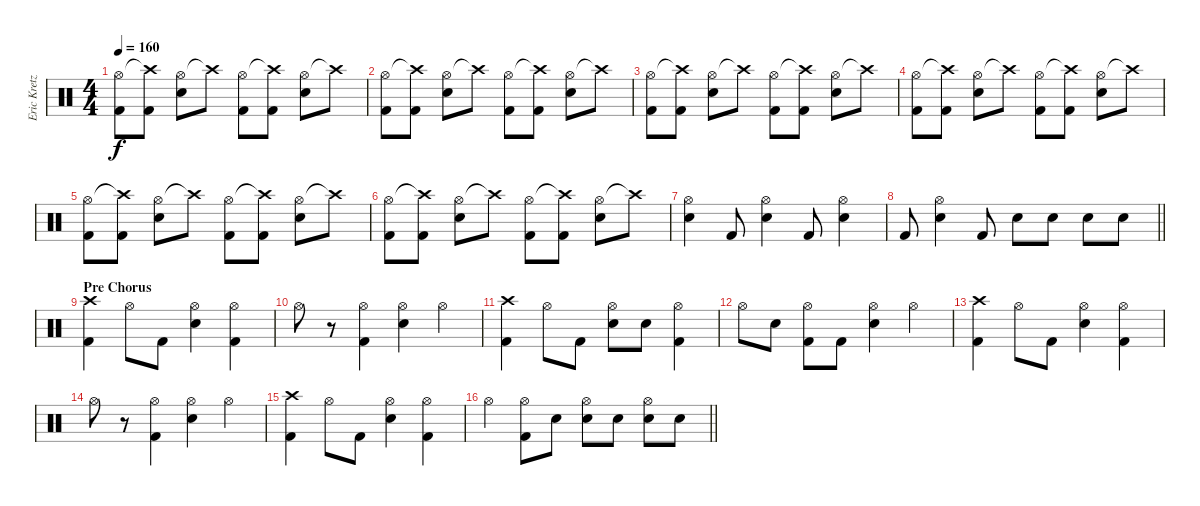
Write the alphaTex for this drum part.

\track ("Eric Kretz (Drums)" "Eric Kretz") {instrument percussion}
\staff {score}
\articulation defaults
\ts (4 4)
\tempo 160
\clef neutral
\ks c
("Hi-Hat (open)" "Kick (hit) 2").8{dy f} ("Crash high (hit)"{t} "Kick (hit) 2").8 ("Hi-Hat (open)" "Snare (hit) 2").8 "Crash high (hit)"{t}.8 ("Hi-Hat (open)" "Kick (hit) 2").8 ("Crash high (hit)"{t} "Kick (hit) 2").8 ("Hi-Hat (open)" "Snare (hit) 2").8 "Crash high (hit)"{t}.8 |
("Hi-Hat (open)" "Kick (hit) 2").8 ("Crash high (hit)"{t} "Kick (hit) 2").8 ("Hi-Hat (open)" "Snare (hit) 2").8 "Crash high (hit)"{t}.8 ("Hi-Hat (open)" "Kick (hit) 2").8 ("Crash high (hit)"{t} "Kick (hit) 2").8 ("Hi-Hat (open)" "Snare (hit) 2").8 "Crash high (hit)"{t}.8 |
("Hi-Hat (open)" "Kick (hit) 2").8 ("Crash high (hit)"{t} "Kick (hit) 2").8 ("Hi-Hat (open)" "Snare (hit) 2").8 "Crash high (hit)"{t}.8 ("Hi-Hat (open)" "Kick (hit) 2").8 ("Crash high (hit)"{t} "Kick (hit) 2").8 ("Hi-Hat (open)" "Snare (hit) 2").8 "Crash high (hit)"{t}.8 |
("Hi-Hat (open)" "Kick (hit) 2").8 ("Crash high (hit)"{t} "Kick (hit) 2").8 ("Hi-Hat (open)" "Snare (hit) 2").8 "Crash high (hit)"{t}.8 ("Hi-Hat (open)" "Kick (hit) 2").8 ("Crash high (hit)"{t} "Kick (hit) 2").8 ("Hi-Hat (open)" "Snare (hit) 2").8 "Crash high (hit)"{t}.8 |
("Hi-Hat (open)" "Kick (hit) 2").8 ("Crash high (hit)"{t} "Kick (hit) 2").8 ("Hi-Hat (open)" "Snare (hit) 2").8 "Crash high (hit)"{t}.8 ("Hi-Hat (open)" "Kick (hit) 2").8 ("Crash high (hit)"{t} "Kick (hit) 2").8 ("Hi-Hat (open)" "Snare (hit) 2").8 "Crash high (hit)"{t}.8 |
("Hi-Hat (open)" "Kick (hit) 2").8 ("Crash high (hit)"{t} "Kick (hit) 2").8 ("Hi-Hat (open)" "Snare (hit) 2").8 "Crash high (hit)"{t}.8 ("Hi-Hat (open)" "Kick (hit) 2").8 ("Crash high (hit)"{t} "Kick (hit) 2").8 ("Hi-Hat (open)" "Snare (hit) 2").8 "Crash high (hit)"{t}.8 |
("Hi-Hat (open)" "Snare (hit) 2").4 "Kick (hit) 2".8 ("Hi-Hat (open)" "Snare (hit) 2").4 "Kick (hit) 2".8 ("Hi-Hat (open)" "Snare (hit) 2").4 |
\barLineRight lightlight "Kick (hit) 2".8
("Hi-Hat (open)" "Snare (hit) 2").4 "Kick (hit) 2".8 "Snare (hit) 2".8 "Snare (hit) 2".8 "Snare (hit) 2".8 "Snare (hit) 2".8 |
\section ("" "Pre Chorus")
("Crash high (hit)" "Kick (hit) 2").4 "Hi-Hat (open)".8 "Kick (hit) 2".8 ("Hi-Hat (open)" "Snare (hit) 2").4 ("Hi-Hat (open)" "Kick (hit) 2").4 |
"Hi-Hat (open)".8 r.8 ("Hi-Hat (open)" "Kick (hit) 2").4 ("Hi-Hat (open)" "Snare (hit) 2").4 "Hi-Hat (open)".4 |
("Crash high (hit)" "Kick (hit) 2").4 "Hi-Hat (open)".8 "Kick (hit) 2".8 ("Hi-Hat (open)" "Snare (hit) 2").8 "Snare (hit) 2".8 ("Hi-Hat (open)" "Kick (hit) 2").4 |
"Hi-Hat (open)".8 "Snare (hit) 2".8 ("Hi-Hat (open)" "Kick (hit) 2").8 "Kick (hit) 2".8 ("Hi-Hat (open)" "Snare (hit) 2").4 "Hi-Hat (open)".4 |
("Crash high (hit)" "Kick (hit) 2").4 "Hi-Hat (open)".8 "Kick (hit) 2".8 ("Hi-Hat (open)" "Snare (hit) 2").4 ("Hi-Hat (open)" "Kick (hit) 2").4 |
"Hi-Hat (open)".8 r.8 ("Hi-Hat (open)" "Kick (hit) 2").4 ("Hi-Hat (open)" "Snare (hit) 2").4 "Hi-Hat (open)".4 |
("Crash high (hit)" "Kick (hit) 2").4 "Hi-Hat (open)".8 "Kick (hit) 2".8 ("Hi-Hat (open)" "Snare (hit) 2").4 ("Hi-Hat (open)" "Kick (hit) 2").4 |
\barLineRight lightlight "Hi-Hat (open)".4
("Hi-Hat (open)" "Kick (hit) 2").8 "Snare (hit) 2".8 ("Hi-Hat (open)" "Snare (hit) 2").8 "Snare (hit) 2".8 ("Hi-Hat (open)" "Snare (hit) 2").8 "Snare (hit) 2".8
